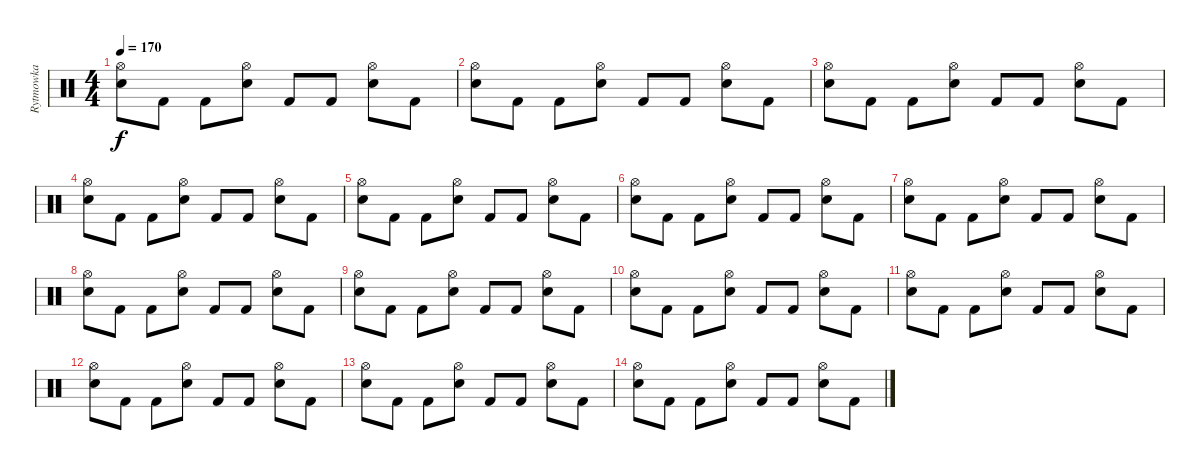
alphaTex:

\track ("Rytmowka" "Rytmowka") {instrument percussion}
\staff {score}
\articulation defaults
\ts (4 4)
\tempo 170
\clef neutral
\ks c
("Hi-Hat (open)" "Snare (hit) 2").8{dy f} "Kick (hit) 2".8 "Kick (hit) 2".8 ("Hi-Hat (open)" "Snare (hit) 2").8 "Kick (hit) 2".8 "Kick (hit) 2".8 ("Hi-Hat (open)" "Snare (hit) 2").8 "Kick (hit) 2".8 |
("Hi-Hat (open)" "Snare (hit) 2").8 "Kick (hit) 2".8 "Kick (hit) 2".8 ("Hi-Hat (open)" "Snare (hit) 2").8 "Kick (hit) 2".8 "Kick (hit) 2".8 ("Hi-Hat (open)" "Snare (hit) 2").8 "Kick (hit) 2".8 |
("Hi-Hat (open)" "Snare (hit) 2").8 "Kick (hit) 2".8 "Kick (hit) 2".8 ("Hi-Hat (open)" "Snare (hit) 2").8 "Kick (hit) 2".8 "Kick (hit) 2".8 ("Hi-Hat (open)" "Snare (hit) 2").8 "Kick (hit) 2".8 |
("Hi-Hat (open)" "Snare (hit) 2").8 "Kick (hit) 2".8 "Kick (hit) 2".8 ("Hi-Hat (open)" "Snare (hit) 2").8 "Kick (hit) 2".8 "Kick (hit) 2".8 ("Hi-Hat (open)" "Snare (hit) 2").8 "Kick (hit) 2".8 |
("Hi-Hat (open)" "Snare (hit) 2").8 "Kick (hit) 2".8 "Kick (hit) 2".8 ("Hi-Hat (open)" "Snare (hit) 2").8 "Kick (hit) 2".8 "Kick (hit) 2".8 ("Hi-Hat (open)" "Snare (hit) 2").8 "Kick (hit) 2".8 |
("Hi-Hat (open)" "Snare (hit) 2").8 "Kick (hit) 2".8 "Kick (hit) 2".8 ("Hi-Hat (open)" "Snare (hit) 2").8 "Kick (hit) 2".8 "Kick (hit) 2".8 ("Hi-Hat (open)" "Snare (hit) 2").8 "Kick (hit) 2".8 |
("Hi-Hat (open)" "Snare (hit) 2").8 "Kick (hit) 2".8 "Kick (hit) 2".8 ("Hi-Hat (open)" "Snare (hit) 2").8 "Kick (hit) 2".8 "Kick (hit) 2".8 ("Hi-Hat (open)" "Snare (hit) 2").8 "Kick (hit) 2".8 |
("Hi-Hat (open)" "Snare (hit) 2").8 "Kick (hit) 2".8 "Kick (hit) 2".8 ("Hi-Hat (open)" "Snare (hit) 2").8 "Kick (hit) 2".8 "Kick (hit) 2".8 ("Hi-Hat (open)" "Snare (hit) 2").8 "Kick (hit) 2".8 |
("Hi-Hat (open)" "Snare (hit) 2").8 "Kick (hit) 2".8 "Kick (hit) 2".8 ("Hi-Hat (open)" "Snare (hit) 2").8 "Kick (hit) 2".8 "Kick (hit) 2".8 ("Hi-Hat (open)" "Snare (hit) 2").8 "Kick (hit) 2".8 |
("Hi-Hat (open)" "Snare (hit) 2").8 "Kick (hit) 2".8 "Kick (hit) 2".8 ("Hi-Hat (open)" "Snare (hit) 2").8 "Kick (hit) 2".8 "Kick (hit) 2".8 ("Hi-Hat (open)" "Snare (hit) 2").8 "Kick (hit) 2".8 |
("Hi-Hat (open)" "Snare (hit) 2").8 "Kick (hit) 2".8 "Kick (hit) 2".8 ("Hi-Hat (open)" "Snare (hit) 2").8 "Kick (hit) 2".8 "Kick (hit) 2".8 ("Hi-Hat (open)" "Snare (hit) 2").8 "Kick (hit) 2".8 |
("Hi-Hat (open)" "Snare (hit) 2").8 "Kick (hit) 2".8 "Kick (hit) 2".8 ("Hi-Hat (open)" "Snare (hit) 2").8 "Kick (hit) 2".8 "Kick (hit) 2".8 ("Hi-Hat (open)" "Snare (hit) 2").8 "Kick (hit) 2".8 |
("Hi-Hat (open)" "Snare (hit) 2").8 "Kick (hit) 2".8 "Kick (hit) 2".8 ("Hi-Hat (open)" "Snare (hit) 2").8 "Kick (hit) 2".8 "Kick (hit) 2".8 ("Hi-Hat (open)" "Snare (hit) 2").8 "Kick (hit) 2".8 |
("Hi-Hat (open)" "Snare (hit) 2").8 "Kick (hit) 2".8 "Kick (hit) 2".8 ("Hi-Hat (open)" "Snare (hit) 2").8 "Kick (hit) 2".8 "Kick (hit) 2".8 ("Hi-Hat (open)" "Snare (hit) 2").8 "Kick (hit) 2".8
